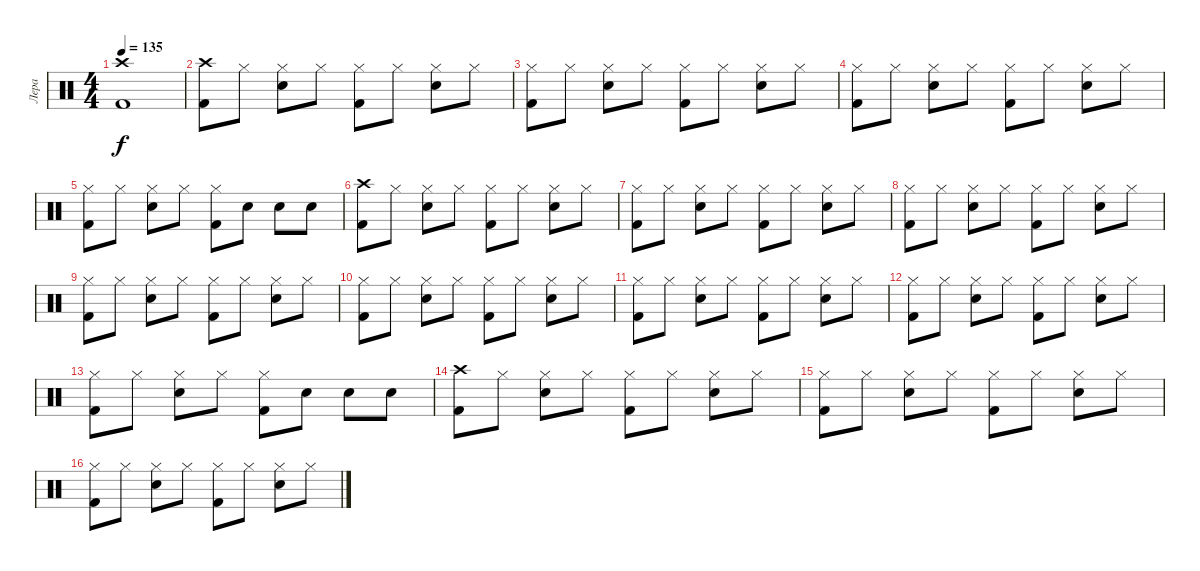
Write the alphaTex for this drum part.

\track ("Лера" "Лера") {instrument percussion}
\staff {score}
\articulation defaults
\ts (4 4)
\tempo 135
\clef neutral
\ks c
("Crash high (hit)" "Kick (hit) 2").1{dy f} |
("Crash high (hit)" "Kick (hit) 2").8 "Hi-Hat (closed)".8 ("Hi-Hat (closed)" "Electric Snare (hit)").8 "Hi-Hat (closed)".8 ("Hi-Hat (closed)" "Kick (hit) 2").8 "Hi-Hat (closed)".8 ("Hi-Hat (closed)" "Electric Snare (hit)").8 "Hi-Hat (closed)".8 |
("Hi-Hat (closed)" "Kick (hit) 2").8 "Hi-Hat (closed)".8 ("Hi-Hat (closed)" "Electric Snare (hit)").8 "Hi-Hat (closed)".8 ("Hi-Hat (closed)" "Kick (hit) 2").8 "Hi-Hat (closed)".8 ("Hi-Hat (closed)" "Electric Snare (hit)").8 "Hi-Hat (closed)".8 |
("Hi-Hat (closed)" "Kick (hit) 2").8 "Hi-Hat (closed)".8 ("Hi-Hat (closed)" "Electric Snare (hit)").8 "Hi-Hat (closed)".8 ("Hi-Hat (closed)" "Kick (hit) 2").8 "Hi-Hat (closed)".8 ("Hi-Hat (closed)" "Electric Snare (hit)").8 "Hi-Hat (closed)".8 |
("Hi-Hat (closed)" "Kick (hit) 2").8 "Hi-Hat (closed)".8 ("Hi-Hat (closed)" "Electric Snare (hit)").8 "Hi-Hat (closed)".8 ("Hi-Hat (closed)" "Kick (hit) 2").8 "Electric Snare (hit)".8 "Electric Snare (hit)".8 "Electric Snare (hit)".8 |
("Crash high (hit)" "Kick (hit) 2").8 "Hi-Hat (closed)".8 ("Hi-Hat (closed)" "Electric Snare (hit)").8 "Hi-Hat (closed)".8 ("Hi-Hat (closed)" "Kick (hit) 2").8 "Hi-Hat (closed)".8 ("Hi-Hat (closed)" "Electric Snare (hit)").8 "Hi-Hat (closed)".8 |
("Hi-Hat (closed)" "Kick (hit) 2").8 "Hi-Hat (closed)".8 ("Hi-Hat (closed)" "Electric Snare (hit)").8 "Hi-Hat (closed)".8 ("Hi-Hat (closed)" "Kick (hit) 2").8 "Hi-Hat (closed)".8 ("Hi-Hat (closed)" "Electric Snare (hit)").8 "Hi-Hat (closed)".8 |
("Hi-Hat (closed)" "Kick (hit) 2").8 "Hi-Hat (closed)".8 ("Hi-Hat (closed)" "Electric Snare (hit)").8 "Hi-Hat (closed)".8 ("Hi-Hat (closed)" "Kick (hit) 2").8 "Hi-Hat (closed)".8 ("Hi-Hat (closed)" "Electric Snare (hit)").8 "Hi-Hat (closed)".8 |
("Hi-Hat (closed)" "Kick (hit) 2").8 "Hi-Hat (closed)".8 ("Hi-Hat (closed)" "Electric Snare (hit)").8 "Hi-Hat (closed)".8 ("Hi-Hat (closed)" "Kick (hit) 2").8 "Hi-Hat (closed)".8 ("Hi-Hat (closed)" "Electric Snare (hit)").8 "Hi-Hat (closed)".8 |
("Hi-Hat (closed)" "Kick (hit) 2").8 "Hi-Hat (closed)".8 ("Hi-Hat (closed)" "Electric Snare (hit)").8 "Hi-Hat (closed)".8 ("Hi-Hat (closed)" "Kick (hit) 2").8 "Hi-Hat (closed)".8 ("Hi-Hat (closed)" "Electric Snare (hit)").8 "Hi-Hat (closed)".8 |
("Hi-Hat (closed)" "Kick (hit) 2").8 "Hi-Hat (closed)".8 ("Hi-Hat (closed)" "Electric Snare (hit)").8 "Hi-Hat (closed)".8 ("Hi-Hat (closed)" "Kick (hit) 2").8 "Hi-Hat (closed)".8 ("Hi-Hat (closed)" "Electric Snare (hit)").8 "Hi-Hat (closed)".8 |
("Hi-Hat (closed)" "Kick (hit) 2").8 "Hi-Hat (closed)".8 ("Hi-Hat (closed)" "Electric Snare (hit)").8 "Hi-Hat (closed)".8 ("Hi-Hat (closed)" "Kick (hit) 2").8 "Hi-Hat (closed)".8 ("Hi-Hat (closed)" "Electric Snare (hit)").8 "Hi-Hat (closed)".8 |
("Hi-Hat (closed)" "Kick (hit) 2").8 "Hi-Hat (closed)".8 ("Hi-Hat (closed)" "Electric Snare (hit)").8 "Hi-Hat (closed)".8 ("Hi-Hat (closed)" "Kick (hit) 2").8 "Electric Snare (hit)".8 "Electric Snare (hit)".8 "Electric Snare (hit)".8 |
("Crash high (hit)" "Kick (hit) 2").8 "Hi-Hat (closed)".8 ("Hi-Hat (closed)" "Electric Snare (hit)").8 "Hi-Hat (closed)".8 ("Hi-Hat (closed)" "Kick (hit) 2").8 "Hi-Hat (closed)".8 ("Hi-Hat (closed)" "Electric Snare (hit)").8 "Hi-Hat (closed)".8 |
("Hi-Hat (closed)" "Kick (hit) 2").8 "Hi-Hat (closed)".8 ("Hi-Hat (closed)" "Electric Snare (hit)").8 "Hi-Hat (closed)".8 ("Hi-Hat (closed)" "Kick (hit) 2").8 "Hi-Hat (closed)".8 ("Hi-Hat (closed)" "Electric Snare (hit)").8 "Hi-Hat (closed)".8 |
("Hi-Hat (closed)" "Kick (hit) 2").8 "Hi-Hat (closed)".8 ("Hi-Hat (closed)" "Electric Snare (hit)").8 "Hi-Hat (closed)".8 ("Hi-Hat (closed)" "Kick (hit) 2").8 "Hi-Hat (closed)".8 ("Hi-Hat (closed)" "Electric Snare (hit)").8 "Hi-Hat (closed)".8
